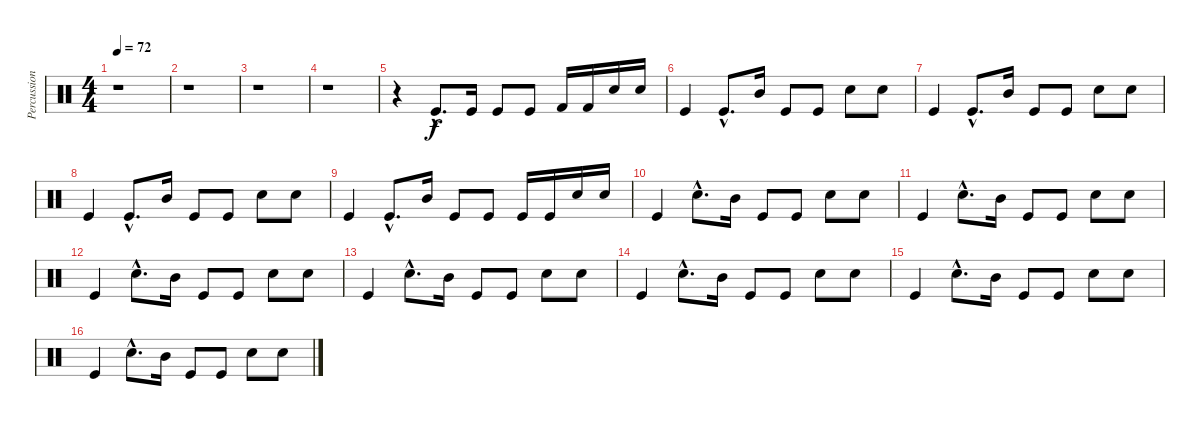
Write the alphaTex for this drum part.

\track ("Percussion" "Percussion") {instrument percussion}
\staff {score}
\articulation defaults
\ts (4 4)
\tempo 72
\clef neutral
\ks c
r.1{dy f} |
r.1 |
r.1 |
r.1 |
r.4 "Kick (hit)"{hac}.8{d} "Kick (hit)".16 "Kick (hit)".8 "Kick (hit)".8 "Kick (hit) 2".16 "Kick (hit) 2".16 "Electric Snare (hit)".16 "Snare (hit) 2".16 |
"Kick (hit)".4 "Kick (hit)"{hac}.8{d} "Mid Tom (hit)".16 "Kick (hit)".8 "Kick (hit)".8 "Electric Snare (hit)".8 "Snare (hit) 2".8 |
"Kick (hit)".4 "Kick (hit)"{hac}.8{d} "Mid Tom (hit)".16 "Kick (hit)".8 "Kick (hit)".8 "Electric Snare (hit)".8 "Snare (hit) 2".8 |
"Kick (hit)".4 "Kick (hit)"{hac}.8{d} "Mid Tom (hit)".16 "Kick (hit)".8 "Kick (hit)".8 "Electric Snare (hit)".8 "Snare (hit) 2".8 |
"Kick (hit)".4 "Kick (hit)"{hac}.8{d} "Mid Tom (hit)".16 "Kick (hit)".8 "Kick (hit)".8 "Kick (hit)".16 "Kick (hit)".16 "Electric Snare (hit)".16 "Snare (hit) 2".16 |
"Kick (hit)".4 "Snare (hit) 2"{hac}.8{d} "Mid Tom (hit)".16 "Kick (hit)".8 "Kick (hit)".8 "Electric Snare (hit)".8 "Snare (hit) 2".8 |
"Kick (hit)".4 "Snare (hit) 2"{hac}.8{d} "Mid Tom (hit)".16 "Kick (hit)".8 "Kick (hit)".8 "Electric Snare (hit)".8 "Snare (hit) 2".8 |
"Kick (hit)".4 "Snare (hit) 2"{hac}.8{d} "Mid Tom (hit)".16 "Kick (hit)".8 "Kick (hit)".8 "Electric Snare (hit)".8 "Snare (hit) 2".8 |
"Kick (hit)".4 "Snare (hit) 2"{hac}.8{d} "Mid Tom (hit)".16 "Kick (hit)".8 "Kick (hit)".8 "Electric Snare (hit)".8 "Snare (hit) 2".8 |
"Kick (hit)".4 "Snare (hit) 2"{hac}.8{d} "Mid Tom (hit)".16 "Kick (hit)".8 "Kick (hit)".8 "Electric Snare (hit)".8 "Snare (hit) 2".8 |
"Kick (hit)".4 "Snare (hit) 2"{hac}.8{d} "Mid Tom (hit)".16 "Kick (hit)".8 "Kick (hit)".8 "Electric Snare (hit)".8 "Snare (hit) 2".8 |
"Kick (hit)".4 "Snare (hit) 2"{hac}.8{d} "Mid Tom (hit)".16 "Kick (hit)".8 "Kick (hit)".8 "Electric Snare (hit)".8 "Snare (hit) 2".8
